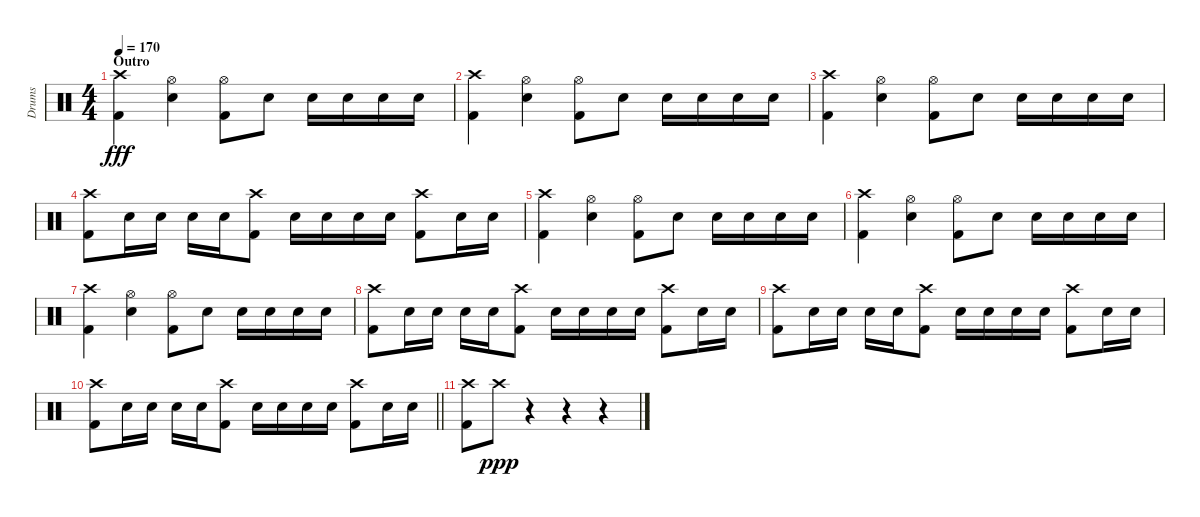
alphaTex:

\track ("Drums" "Drums") {instrument percussion}
\staff {score}
\articulation defaults
\ts (4 4)
\section ("" "Outro")
\tempo 170
\clef neutral
\ks c
("Crash high (hit)" "Kick (hit) 2").4{dy fff} ("Hi-Hat (open)" "Snare (hit) 2").4 ("Hi-Hat (open)" "Kick (hit) 2").8 "Snare (hit) 2".8 "Snare (hit) 2".16 "Snare (hit) 2".16 "Snare (hit) 2".16 "Snare (hit) 2".16 |
("Crash high (hit)" "Kick (hit) 2").4 ("Hi-Hat (open)" "Snare (hit) 2").4 ("Hi-Hat (open)" "Kick (hit) 2").8 "Snare (hit) 2".8 "Snare (hit) 2".16 "Snare (hit) 2".16 "Snare (hit) 2".16 "Snare (hit) 2".16 |
("Crash high (hit)" "Kick (hit) 2").4 ("Hi-Hat (open)" "Snare (hit) 2").4 ("Hi-Hat (open)" "Kick (hit) 2").8 "Snare (hit) 2".8 "Snare (hit) 2".16 "Snare (hit) 2".16 "Snare (hit) 2".16 "Snare (hit) 2".16 |
("Crash high (hit)" "Kick (hit) 2").8 "Snare (hit) 2".16 "Snare (hit) 2".16 "Snare (hit) 2".16 "Snare (hit) 2".16 ("Crash high (hit)" "Kick (hit) 2").8 "Snare (hit) 2".16 "Snare (hit) 2".16 "Snare (hit) 2".16 "Snare (hit) 2".16 ("Crash high (hit)" "Kick (hit) 2").8 "Snare (hit) 2".16 "Snare (hit) 2".16 |
("Crash high (hit)" "Kick (hit) 2").4 ("Hi-Hat (open)" "Snare (hit) 2").4 ("Hi-Hat (open)" "Kick (hit) 2").8 "Snare (hit) 2".8 "Snare (hit) 2".16 "Snare (hit) 2".16 "Snare (hit) 2".16 "Snare (hit) 2".16 |
("Crash high (hit)" "Kick (hit) 2").4 ("Hi-Hat (open)" "Snare (hit) 2").4 ("Hi-Hat (open)" "Kick (hit) 2").8 "Snare (hit) 2".8 "Snare (hit) 2".16 "Snare (hit) 2".16 "Snare (hit) 2".16 "Snare (hit) 2".16 |
("Crash high (hit)" "Kick (hit) 2").4 ("Hi-Hat (open)" "Snare (hit) 2").4 ("Hi-Hat (open)" "Kick (hit) 2").8 "Snare (hit) 2".8 "Snare (hit) 2".16 "Snare (hit) 2".16 "Snare (hit) 2".16 "Snare (hit) 2".16 |
("Crash high (hit)" "Kick (hit) 2").8 "Snare (hit) 2".16 "Snare (hit) 2".16 "Snare (hit) 2".16 "Snare (hit) 2".16 ("Crash high (hit)" "Kick (hit) 2").8 "Snare (hit) 2".16 "Snare (hit) 2".16 "Snare (hit) 2".16 "Snare (hit) 2".16 ("Crash high (hit)" "Kick (hit) 2").8 "Snare (hit) 2".16 "Snare (hit) 2".16 |
("Crash high (hit)" "Kick (hit) 2").8 "Snare (hit) 2".16 "Snare (hit) 2".16 "Snare (hit) 2".16 "Snare (hit) 2".16 ("Crash high (hit)" "Kick (hit) 2").8 "Snare (hit) 2".16 "Snare (hit) 2".16 "Snare (hit) 2".16 "Snare (hit) 2".16 ("Crash high (hit)" "Kick (hit) 2").8 "Snare (hit) 2".16 "Snare (hit) 2".16 |
\barLineRight lightlight
("Crash high (hit)" "Kick (hit) 2").8 "Snare (hit) 2".16 "Snare (hit) 2".16 "Snare (hit) 2".16 "Snare (hit) 2".16 ("Crash high (hit)" "Kick (hit) 2").8 "Snare (hit) 2".16 "Snare (hit) 2".16 "Snare (hit) 2".16 "Snare (hit) 2".16 ("Crash high (hit)" "Kick (hit) 2").8 "Snare (hit) 2".16 "Snare (hit) 2".16 |
("Crash high (hit)" "Kick (hit) 2").8 "Crash high (hit)".8{dy ppp} r.4 r.4 r.4
